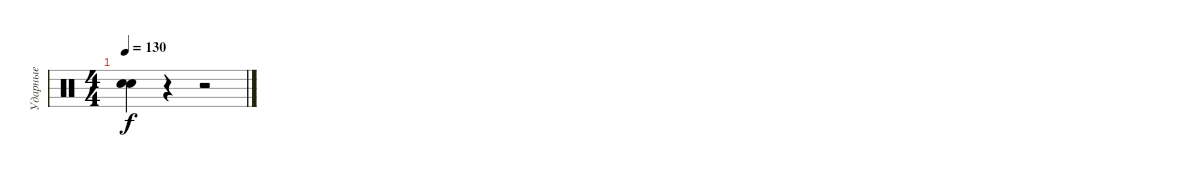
\track ("Ударные" "Ударные") {instrument percussion}
\staff {score}
\articulation defaults
\ts (4 4)
\tempo 130
\clef neutral
\ks c
("Snare (hit)"{t} "Snare (hit)"{t}).4{dy f} r.4 r.2
